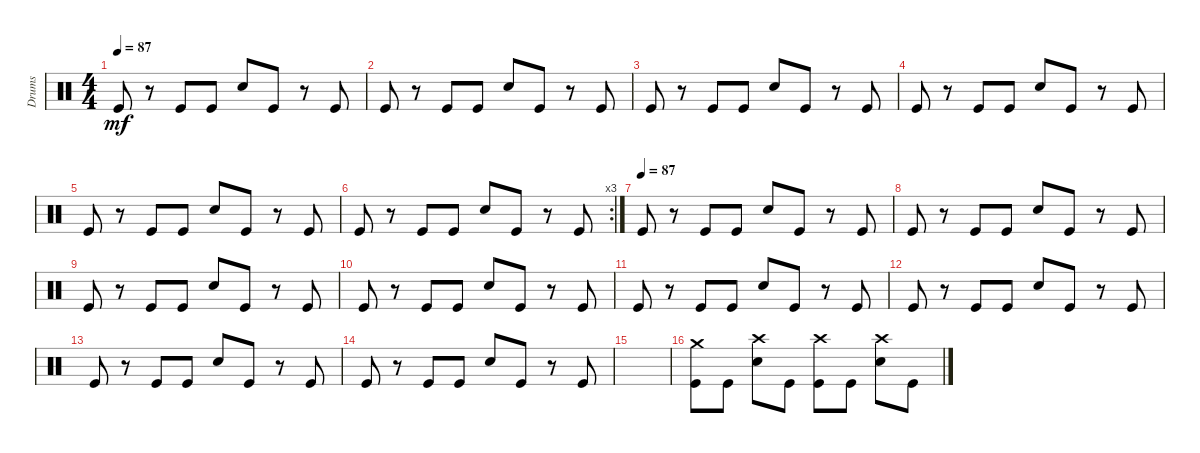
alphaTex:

\track ("Drums" "Drums") {instrument percussion}
\staff {score}
\articulation defaults
\ts (4 4)
\tempo 87
\clef neutral
\ks c "Kick (hit)".8{dy mf}
r.8 "Kick (hit)".8 "Kick (hit)".8 "Electric Snare (hit)".8 "Kick (hit)".8 r.8 "Kick (hit)".8 |
"Kick (hit)".8 r.8 "Kick (hit)".8 "Kick (hit)".8 "Electric Snare (hit)".8 "Kick (hit)".8 r.8 "Kick (hit)".8 |
"Kick (hit)".8 r.8 "Kick (hit)".8 "Kick (hit)".8 "Electric Snare (hit)".8 "Kick (hit)".8 r.8 "Kick (hit)".8 |
"Kick (hit)".8 r.8 "Kick (hit)".8 "Kick (hit)".8 "Electric Snare (hit)".8 "Kick (hit)".8 r.8 "Kick (hit)".8 |
"Kick (hit)".8 r.8 "Kick (hit)".8 "Kick (hit)".8 "Electric Snare (hit)".8 "Kick (hit)".8 r.8 "Kick (hit)".8 |
\rc 3 "Kick (hit)".8
r.8 "Kick (hit)".8 "Kick (hit)".8 "Electric Snare (hit)".8 "Kick (hit)".8 r.8 "Kick (hit)".8 |
\tempo (87)
"Kick (hit)".8 r.8 "Kick (hit)".8 "Kick (hit)".8 "Electric Snare (hit)".8 "Kick (hit)".8 r.8 "Kick (hit)".8 |
"Kick (hit)".8 r.8 "Kick (hit)".8 "Kick (hit)".8 "Electric Snare (hit)".8 "Kick (hit)".8 r.8 "Kick (hit)".8 |
"Kick (hit)".8 r.8 "Kick (hit)".8 "Kick (hit)".8 "Electric Snare (hit)".8 "Kick (hit)".8 r.8 "Kick (hit)".8 |
"Kick (hit)".8 r.8 "Kick (hit)".8 "Kick (hit)".8 "Electric Snare (hit)".8 "Kick (hit)".8 r.8 "Kick (hit)".8 |
"Kick (hit)".8 r.8 "Kick (hit)".8 "Kick (hit)".8 "Electric Snare (hit)".8 "Kick (hit)".8 r.8 "Kick (hit)".8 |
"Kick (hit)".8 r.8 "Kick (hit)".8 "Kick (hit)".8 "Electric Snare (hit)".8 "Kick (hit)".8 r.8 "Kick (hit)".8 |
"Kick (hit)".8 r.8 "Kick (hit)".8 "Kick (hit)".8 "Electric Snare (hit)".8 "Kick (hit)".8 r.8 "Kick (hit)".8 |
"Kick (hit)".8 r.8 "Kick (hit)".8 "Kick (hit)".8 "Electric Snare (hit)".8 "Kick (hit)".8 r.8 "Kick (hit)".8 |
|
("Crash medium (hit)" "Kick (hit)").8{volume 13} "Kick (hit)".8 ("Crash high (hit)" "Electric Snare (hit)").8 "Kick (hit)".8 ("Crash high (hit)" "Kick (hit)").8 "Kick (hit)".8 ("Crash high (hit)" "Electric Snare (hit)").8 "Kick (hit)".8
